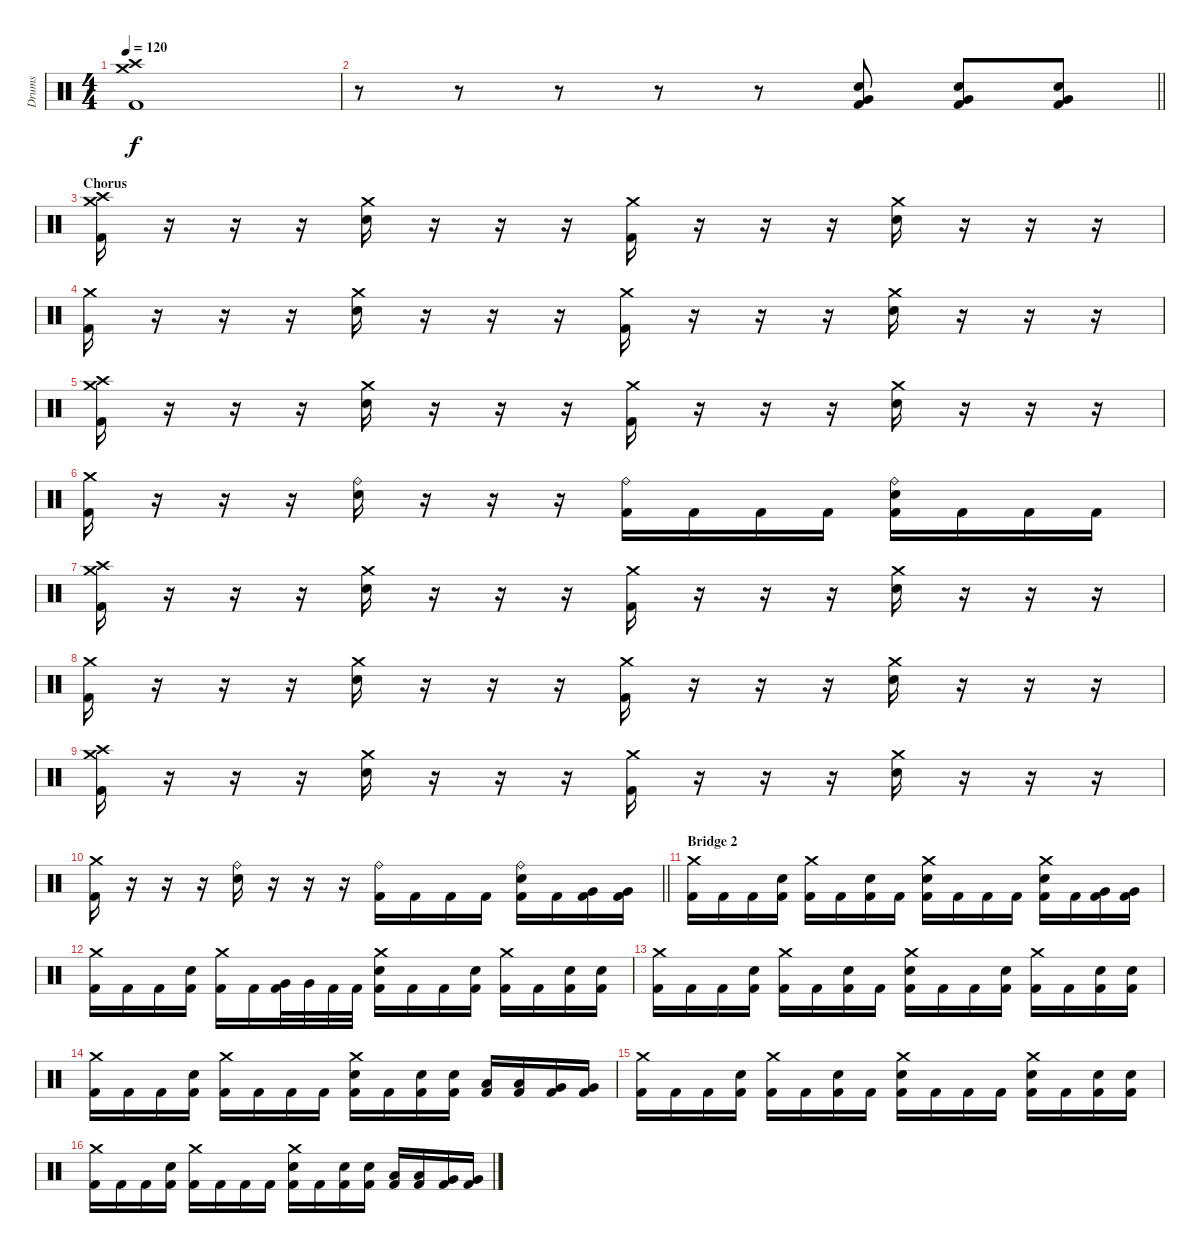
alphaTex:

\track ("Drums" "Drums") {instrument percussion}
\staff {score}
\articulation defaults
\ts (4 4)
\tempo 120
\clef neutral
\ks c
("Crash medium (hit)" "Crash high (hit)" "Kick (hit) 2").1{dy f} |
\barLineRight lightlight
r.8 r.8 r.8 r.8 r.8 ("Electric Snare (hit)" "Very Low Tom (hit)" "Kick (hit) 2").8 ("Electric Snare (hit)" "Very Low Tom (hit)" "Kick (hit) 2").8 ("Electric Snare (hit)" "Very Low Tom (hit)" "Kick (hit) 2").8 |
\section ("" "Chorus")
("Crash medium (hit)" "Crash high (hit)" "Kick (hit) 2").16 r.16 r.16 r.16 ("Crash medium (hit)" "Electric Snare (hit)").16 r.16 r.16 r.16 ("Crash medium (hit)" "Kick (hit) 2").16 r.16 r.16 r.16 ("Crash medium (hit)" "Electric Snare (hit)").16 r.16 r.16 r.16 |
("Crash medium (hit)" "Kick (hit) 2").16 r.16 r.16 r.16 ("Crash medium (hit)" "Electric Snare (hit)").16 r.16 r.16 r.16 ("Crash medium (hit)" "Kick (hit) 2").16 r.16 r.16 r.16 ("Crash medium (hit)" "Electric Snare (hit)").16 r.16 r.16 r.16 |
("Crash medium (hit)" "Crash high (hit)" "Kick (hit) 2").16 r.16 r.16 r.16 ("Crash medium (hit)" "Electric Snare (hit)").16 r.16 r.16 r.16 ("Crash medium (hit)" "Kick (hit) 2").16 r.16 r.16 r.16 ("Crash medium (hit)" "Electric Snare (hit)").16 r.16 r.16 r.16 |
("Crash medium (hit)" "Kick (hit) 2").16 r.16 r.16 r.16 ("Ride (bell)" "Electric Snare (hit)").16 r.16 r.16 r.16 ("Ride (bell)" "Kick (hit) 2").16 "Kick (hit) 2".16 "Kick (hit) 2".16 "Kick (hit) 2".16 ("Ride (bell)" "Electric Snare (hit)" "Kick (hit) 2").16 "Kick (hit) 2".16 "Kick (hit) 2".16 "Kick (hit) 2".16 |
("Crash medium (hit)" "Crash high (hit)" "Kick (hit) 2").16 r.16 r.16 r.16 ("Crash medium (hit)" "Electric Snare (hit)").16 r.16 r.16 r.16 ("Crash medium (hit)" "Kick (hit) 2").16 r.16 r.16 r.16 ("Crash medium (hit)" "Electric Snare (hit)").16 r.16 r.16 r.16 |
("Crash medium (hit)" "Kick (hit) 2").16 r.16 r.16 r.16 ("Crash medium (hit)" "Electric Snare (hit)").16 r.16 r.16 r.16 ("Crash medium (hit)" "Kick (hit) 2").16 r.16 r.16 r.16 ("Crash medium (hit)" "Electric Snare (hit)").16 r.16 r.16 r.16 |
("Crash medium (hit)" "Crash high (hit)" "Kick (hit) 2").16 r.16 r.16 r.16 ("Crash medium (hit)" "Electric Snare (hit)").16 r.16 r.16 r.16 ("Crash medium (hit)" "Kick (hit) 2").16 r.16 r.16 r.16 ("Crash medium (hit)" "Electric Snare (hit)").16 r.16 r.16 r.16 |
\barLineRight lightlight
("Crash medium (hit)" "Kick (hit) 2").16 r.16 r.16 r.16 ("Ride (bell)" "Electric Snare (hit)").16 r.16 r.16 r.16 ("Ride (bell)" "Kick (hit) 2").16 "Kick (hit) 2".16 "Kick (hit) 2".16 "Kick (hit) 2".16 ("Ride (bell)" "Electric Snare (hit)" "Kick (hit) 2").16 "Kick (hit) 2".16 ("Very Low Tom (hit)" "Kick (hit) 2").16 ("Very Low Tom (hit)" "Kick (hit) 2").16 |
\section ("" "Bridge 2")
("Crash medium (hit)" "Kick (hit) 2").16 "Kick (hit) 2".16 "Kick (hit) 2".16 ("Electric Snare (hit)" "Kick (hit) 2").16 ("Crash medium (hit)" "Kick (hit) 2").16 "Kick (hit) 2".16 ("Electric Snare (hit)" "Kick (hit) 2").16 "Kick (hit) 2".16 ("Crash medium (hit)" "Electric Snare (hit)" "Kick (hit) 2").16 "Kick (hit) 2".16 "Kick (hit) 2".16 "Kick (hit) 2".16 ("Crash medium (hit)" "Electric Snare (hit)" "Kick (hit) 2").16 "Kick (hit) 2".16 ("Very Low Tom (hit)" "Kick (hit) 2").16 ("Very Low Tom (hit)" "Kick (hit) 2").16 |
("Crash medium (hit)" "Kick (hit) 2").16 "Kick (hit) 2".16 "Kick (hit) 2".16 ("Electric Snare (hit)" "Kick (hit) 2").16 ("Crash medium (hit)" "Kick (hit) 2").16 "Kick (hit) 2".16 ("Very Low Tom (hit)" "Kick (hit) 2").32 "Very Low Tom (hit)".32 "Kick (hit) 2".32 "Kick (hit) 2".32 ("Crash medium (hit)" "Electric Snare (hit)" "Kick (hit) 2").16 "Kick (hit) 2".16 "Kick (hit) 2".16 ("Electric Snare (hit)" "Kick (hit) 2").16 ("Crash medium (hit)" "Kick (hit) 2").16 "Kick (hit) 2".16 ("Electric Snare (hit)" "Kick (hit) 2").16 ("Electric Snare (hit)" "Kick (hit) 2").16 |
("Crash medium (hit)" "Kick (hit) 2").16 "Kick (hit) 2".16 "Kick (hit) 2".16 ("Electric Snare (hit)" "Kick (hit) 2").16 ("Crash medium (hit)" "Kick (hit) 2").16 "Kick (hit) 2".16 ("Electric Snare (hit)" "Kick (hit) 2").16 "Kick (hit) 2".16 ("Crash medium (hit)" "Electric Snare (hit)" "Kick (hit) 2").16 "Kick (hit) 2".16 "Kick (hit) 2".16 ("Electric Snare (hit)" "Kick (hit) 2").16 ("Crash medium (hit)" "Kick (hit) 2").16 "Kick (hit) 2".16 ("Electric Snare (hit)" "Kick (hit) 2").16 ("Electric Snare (hit)" "Kick (hit) 2").16 |
("Crash medium (hit)" "Kick (hit) 2").16 "Kick (hit) 2".16 "Kick (hit) 2".16 ("Electric Snare (hit)" "Kick (hit) 2").16 ("Crash medium (hit)" "Kick (hit) 2").16 "Kick (hit) 2".16 "Kick (hit) 2".16 "Kick (hit) 2".16 ("Crash medium (hit)" "Electric Snare (hit)" "Kick (hit) 2").16 "Kick (hit) 2".16 ("Electric Snare (hit)" "Kick (hit) 2").16 ("Electric Snare (hit)" "Kick (hit) 2").16 ("Low Tom (hit)" "Kick (hit) 2").16 ("Low Tom (hit)" "Kick (hit) 2").16 ("Very Low Tom (hit)" "Kick (hit) 2").16 ("Very Low Tom (hit)" "Kick (hit) 2").16 |
("Crash medium (hit)" "Kick (hit) 2").16 "Kick (hit) 2".16 "Kick (hit) 2".16 ("Electric Snare (hit)" "Kick (hit) 2").16 ("Crash medium (hit)" "Kick (hit) 2").16 "Kick (hit) 2".16 ("Electric Snare (hit)" "Kick (hit) 2").16 "Kick (hit) 2".16 ("Crash medium (hit)" "Electric Snare (hit)" "Kick (hit) 2").16 "Kick (hit) 2".16 "Kick (hit) 2".16 "Kick (hit) 2".16 ("Crash medium (hit)" "Electric Snare (hit)" "Kick (hit) 2").16 "Kick (hit) 2".16 ("Electric Snare (hit)" "Kick (hit) 2").16 ("Electric Snare (hit)" "Kick (hit) 2").16 |
("Crash medium (hit)" "Kick (hit) 2").16 "Kick (hit) 2".16 "Kick (hit) 2".16 ("Electric Snare (hit)" "Kick (hit) 2").16 ("Crash medium (hit)" "Kick (hit) 2").16 "Kick (hit) 2".16 "Kick (hit) 2".16 "Kick (hit) 2".16 ("Crash medium (hit)" "Electric Snare (hit)" "Kick (hit) 2").16 "Kick (hit) 2".16 ("Electric Snare (hit)" "Kick (hit) 2").16 ("Electric Snare (hit)" "Kick (hit) 2").16 ("Low Tom (hit)" "Kick (hit) 2").16 ("Low Tom (hit)" "Kick (hit) 2").16 ("Very Low Tom (hit)" "Kick (hit) 2").16 ("Very Low Tom (hit)" "Kick (hit) 2").16
